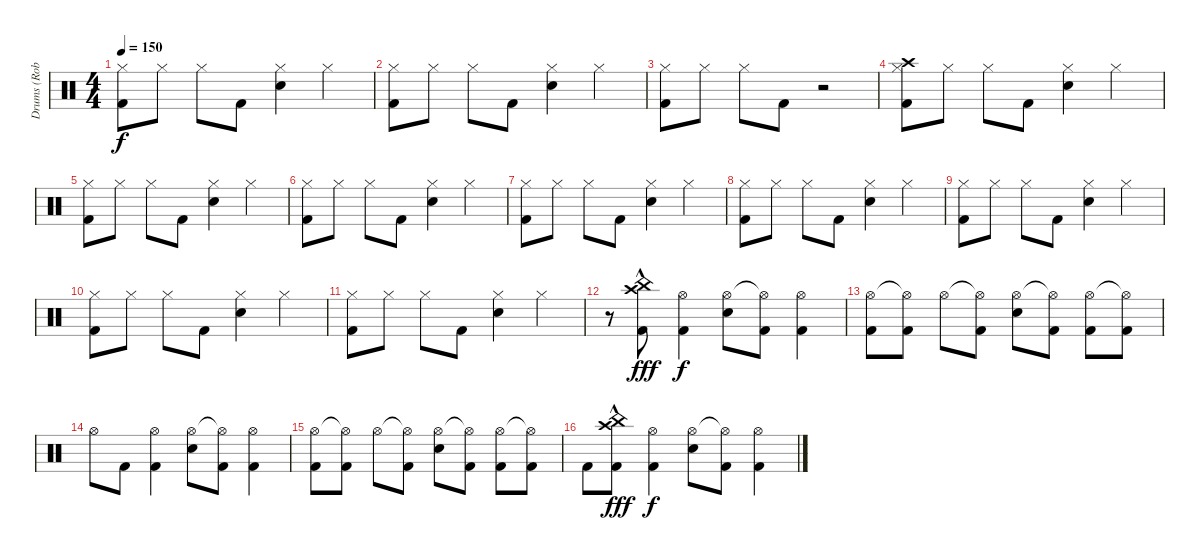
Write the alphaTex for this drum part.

\track ("Drums (Rob)" "Drums (Rob") {instrument percussion}
\staff {score}
\articulation defaults
\ts (4 4)
\tempo 150
\clef neutral
\ks c
("Hi-Hat (closed)" "Kick (hit) 2").8{dy f} "Hi-Hat (closed)".8 "Hi-Hat (closed)".8 "Kick (hit) 2".8 ("Hi-Hat (closed)" "Hand Clap (hit)").4 "Hi-Hat (closed)".4 |
("Hi-Hat (closed)" "Kick (hit) 2").8 "Hi-Hat (closed)".8 "Hi-Hat (closed)".8 "Kick (hit) 2".8 ("Hi-Hat (closed)" "Hand Clap (hit)").4 "Hi-Hat (closed)".4 |
("Hi-Hat (closed)" "Kick (hit) 2").8 "Hi-Hat (closed)".8 "Hi-Hat (closed)".8 "Kick (hit) 2".8 r.2 |
("Crash high (hit)" "Hi-Hat (closed)" "Kick (hit) 2").8 "Hi-Hat (closed)".8 "Hi-Hat (closed)".8 "Kick (hit) 2".8 ("Hi-Hat (closed)" "Snare (hit) 2").4 "Hi-Hat (closed)".4 |
("Hi-Hat (closed)" "Kick (hit) 2").8 "Hi-Hat (closed)".8 "Hi-Hat (closed)".8 "Kick (hit) 2".8 ("Hi-Hat (closed)" "Snare (hit) 2").4 "Hi-Hat (closed)".4 |
("Hi-Hat (closed)" "Kick (hit) 2").8 "Hi-Hat (closed)".8 "Hi-Hat (closed)".8 "Kick (hit) 2".8 ("Hi-Hat (closed)" "Snare (hit) 2").4 "Hi-Hat (closed)".4 |
("Hi-Hat (closed)" "Kick (hit) 2").8 "Hi-Hat (closed)".8 "Hi-Hat (closed)".8 "Kick (hit) 2".8 ("Hi-Hat (closed)" "Snare (hit) 2").4 "Hi-Hat (closed)".4 |
("Hi-Hat (closed)" "Kick (hit) 2").8 "Hi-Hat (closed)".8 "Hi-Hat (closed)".8 "Kick (hit) 2".8 ("Hi-Hat (closed)" "Snare (hit) 2").4 "Hi-Hat (closed)".4 |
("Hi-Hat (closed)" "Kick (hit) 2").8 "Hi-Hat (closed)".8 "Hi-Hat (closed)".8 "Kick (hit) 2".8 ("Hi-Hat (closed)" "Snare (hit) 2").4 "Hi-Hat (closed)".4 |
("Hi-Hat (closed)" "Kick (hit) 2").8 "Hi-Hat (closed)".8 "Hi-Hat (closed)".8 "Kick (hit) 2".8 ("Hi-Hat (closed)" "Snare (hit) 2").4 "Hi-Hat (closed)".4 |
("Hi-Hat (closed)" "Kick (hit) 2").8 "Hi-Hat (closed)".8 "Hi-Hat (closed)".8 "Kick (hit) 2".8 ("Hi-Hat (closed)" "Snare (hit) 2").4 "Hi-Hat (closed)".4 |
r.8 ("Crash high (hit)"{hac} "China (hit)"{hac} "Kick (hit) 2").8{dy fff} ("Hi-Hat (open)" "Kick (hit) 2").4{dy f} ("Hi-Hat (open)" "Snare (hit) 2").8 ("Hi-Hat (open)"{t} "Kick (hit) 2").8 ("Hi-Hat (open)" "Kick (hit) 2").4 |
("Hi-Hat (open)" "Kick (hit) 2").8 ("Hi-Hat (open)"{t} "Kick (hit) 2").8 "Hi-Hat (open)".8 ("Hi-Hat (open)"{t} "Kick (hit) 2").8 ("Hi-Hat (open)" "Snare (hit) 2").8 ("Hi-Hat (open)"{t} "Kick (hit) 2").8 ("Hi-Hat (open)" "Kick (hit) 2").8 ("Hi-Hat (open)"{t} "Kick (hit) 2").8 |
"Hi-Hat (open)".8 "Kick (hit) 2".8 ("Hi-Hat (open)" "Kick (hit) 2").4 ("Hi-Hat (open)" "Snare (hit) 2").8 ("Hi-Hat (open)"{t} "Kick (hit) 2").8 ("Hi-Hat (open)" "Kick (hit) 2").4 |
("Hi-Hat (open)" "Kick (hit) 2").8 ("Hi-Hat (open)"{t} "Kick (hit) 2").8 "Hi-Hat (open)".8 ("Hi-Hat (open)"{t} "Kick (hit) 2").8 ("Hi-Hat (open)" "Snare (hit) 2").8 ("Hi-Hat (open)"{t} "Kick (hit) 2").8 ("Hi-Hat (open)" "Kick (hit) 2").8 ("Hi-Hat (open)"{t} "Kick (hit) 2").8 |
"Kick (hit) 2".8 ("Crash high (hit)"{hac} "China (hit)"{hac} "Kick (hit) 2").8{dy fff} ("Hi-Hat (open)" "Kick (hit) 2").4{dy f} ("Hi-Hat (open)" "Snare (hit) 2").8 ("Hi-Hat (open)"{t} "Kick (hit) 2").8 ("Hi-Hat (open)" "Kick (hit) 2").4
